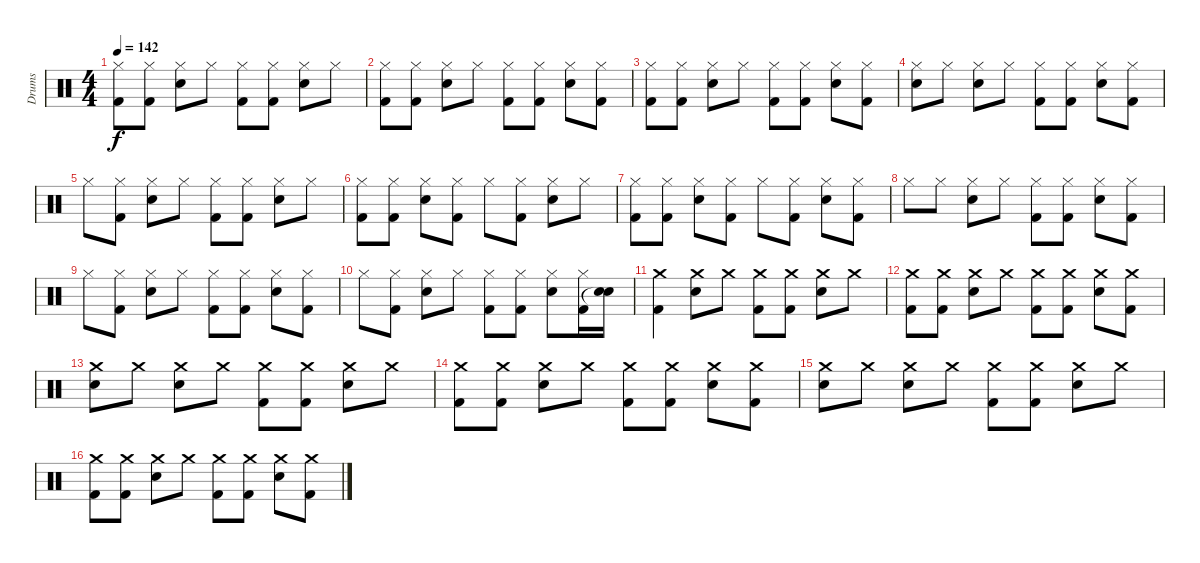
\track ("Drums" "Drums") {instrument percussion}
\staff {score}
\articulation defaults
\ts (4 4)
\tempo 142
\clef neutral
\ks c
("Hi-Hat (closed)" "Kick (hit) 2").8{dy f} ("Hi-Hat (closed)" "Kick (hit) 2").8 ("Hi-Hat (closed)" "Snare (hit) 2").8 "Hi-Hat (closed)".8 ("Hi-Hat (closed)" "Kick (hit) 2").8 ("Hi-Hat (closed)" "Kick (hit) 2").8 ("Hi-Hat (closed)" "Snare (hit) 2").8 "Hi-Hat (closed)".8 |
("Hi-Hat (closed)" "Kick (hit) 2").8 ("Hi-Hat (closed)" "Kick (hit) 2").8 ("Hi-Hat (closed)" "Snare (hit) 2").8 "Hi-Hat (closed)".8 ("Hi-Hat (closed)" "Kick (hit) 2").8 ("Hi-Hat (closed)" "Kick (hit) 2").8 ("Hi-Hat (closed)" "Snare (hit) 2").8 ("Hi-Hat (closed)" "Kick (hit) 2").8 |
("Hi-Hat (closed)" "Kick (hit) 2").8 ("Hi-Hat (closed)" "Kick (hit) 2").8 ("Hi-Hat (closed)" "Snare (hit) 2").8 "Hi-Hat (closed)".8 ("Hi-Hat (closed)" "Kick (hit) 2").8 ("Hi-Hat (closed)" "Kick (hit) 2").8 ("Hi-Hat (closed)" "Snare (hit) 2").8 ("Hi-Hat (closed)" "Kick (hit) 2").8 |
("Hi-Hat (closed)" "Snare (hit) 2").8 "Hi-Hat (closed)".8 ("Hi-Hat (closed)" "Snare (hit) 2").8 "Hi-Hat (closed)".8 ("Hi-Hat (closed)" "Kick (hit) 2").8 ("Hi-Hat (closed)" "Kick (hit) 2").8 ("Hi-Hat (closed)" "Snare (hit) 2").8 ("Hi-Hat (closed)" "Kick (hit) 2").8 |
"Hi-Hat (closed)".8 ("Hi-Hat (closed)" "Kick (hit) 2").8 ("Hi-Hat (closed)" "Snare (hit) 2").8 "Hi-Hat (closed)".8 ("Hi-Hat (closed)" "Kick (hit) 2").8 ("Hi-Hat (closed)" "Kick (hit) 2").8 ("Hi-Hat (closed)" "Snare (hit) 2").8 "Hi-Hat (closed)".8 |
("Hi-Hat (closed)" "Kick (hit) 2").8 ("Hi-Hat (closed)" "Kick (hit) 2").8 ("Hi-Hat (closed)" "Snare (hit) 2").8 ("Hi-Hat (closed)" "Kick (hit) 2").8 "Hi-Hat (closed)".8 ("Hi-Hat (closed)" "Kick (hit) 2").8 ("Hi-Hat (closed)" "Snare (hit) 2").8 "Hi-Hat (closed)".8 |
("Hi-Hat (closed)" "Kick (hit) 2").8 ("Hi-Hat (closed)" "Kick (hit) 2").8 ("Hi-Hat (closed)" "Snare (hit) 2").8 ("Hi-Hat (closed)" "Kick (hit) 2").8 "Hi-Hat (closed)".8 ("Hi-Hat (closed)" "Kick (hit) 2").8 ("Hi-Hat (closed)" "Snare (hit) 2").8 ("Hi-Hat (closed)" "Kick (hit) 2").8 |
"Hi-Hat (closed)".8 "Hi-Hat (closed)".8 ("Hi-Hat (closed)" "Snare (hit) 2").8 "Hi-Hat (closed)".8 ("Hi-Hat (closed)" "Kick (hit) 2").8 ("Hi-Hat (closed)" "Kick (hit) 2").8 ("Hi-Hat (closed)" "Snare (hit) 2").8 ("Hi-Hat (closed)" "Kick (hit) 2").8 |
"Hi-Hat (closed)".8 ("Hi-Hat (closed)" "Kick (hit) 2").8 ("Hi-Hat (closed)" "Snare (hit) 2").8 "Hi-Hat (closed)".8 ("Hi-Hat (closed)" "Kick (hit) 2").8 ("Hi-Hat (closed)" "Kick (hit) 2").8 ("Hi-Hat (closed)" "Snare (hit) 2").8 ("Hi-Hat (closed)" "Kick (hit) 2").8 |
"Hi-Hat (closed)".8 ("Hi-Hat (closed)" "Kick (hit) 2").8 ("Hi-Hat (closed)" "Snare (hit) 2").8 "Hi-Hat (closed)".8 ("Hi-Hat (closed)" "Kick (hit) 2").8 ("Hi-Hat (closed)" "Kick (hit) 2").8 ("Hi-Hat (closed)" "Snare (hit) 2").8 ("Hi-Hat (closed)" "Kick (hit) 2").16 ("Snare (hit) 2" "Snare (hit)"{t}).16 |
("Crash medium (hit)" "Kick (hit) 2").4 ("Crash medium (hit)" "Snare (hit) 2").8 "Crash medium (hit)".8 ("Crash medium (hit)" "Kick (hit) 2").8 ("Crash medium (hit)" "Kick (hit) 2").8 ("Crash medium (hit)" "Snare (hit) 2").8 "Crash medium (hit)".8 |
("Crash medium (hit)" "Kick (hit) 2").8 ("Crash medium (hit)" "Kick (hit) 2").8 ("Crash medium (hit)" "Snare (hit) 2").8 "Crash medium (hit)".8 ("Crash medium (hit)" "Kick (hit) 2").8 ("Crash medium (hit)" "Kick (hit) 2").8 ("Crash medium (hit)" "Snare (hit) 2").8 ("Crash medium (hit)" "Kick (hit) 2").8 |
("Crash medium (hit)" "Snare (hit) 2").8 "Crash medium (hit)".8 ("Crash medium (hit)" "Snare (hit) 2").8 "Crash medium (hit)".8 ("Crash medium (hit)" "Kick (hit) 2").8 ("Crash medium (hit)" "Kick (hit) 2").8 ("Crash medium (hit)" "Snare (hit) 2").8 "Crash medium (hit)".8 |
("Crash medium (hit)" "Kick (hit) 2").8 ("Crash medium (hit)" "Kick (hit) 2").8 ("Crash medium (hit)" "Snare (hit) 2").8 "Crash medium (hit)".8 ("Crash medium (hit)" "Kick (hit) 2").8 ("Crash medium (hit)" "Kick (hit) 2").8 ("Crash medium (hit)" "Snare (hit) 2").8 ("Crash medium (hit)" "Kick (hit) 2").8 |
("Crash medium (hit)" "Snare (hit) 2").8 "Crash medium (hit)".8 ("Crash medium (hit)" "Snare (hit) 2").8 "Crash medium (hit)".8 ("Crash medium (hit)" "Kick (hit) 2").8 ("Crash medium (hit)" "Kick (hit) 2").8 ("Crash medium (hit)" "Snare (hit) 2").8 "Crash medium (hit)".8 |
("Crash medium (hit)" "Kick (hit) 2").8 ("Crash medium (hit)" "Kick (hit) 2").8 ("Crash medium (hit)" "Snare (hit) 2").8 "Crash medium (hit)".8 ("Crash medium (hit)" "Kick (hit) 2").8 ("Crash medium (hit)" "Kick (hit) 2").8 ("Crash medium (hit)" "Snare (hit) 2").8 ("Crash medium (hit)" "Kick (hit) 2").8
